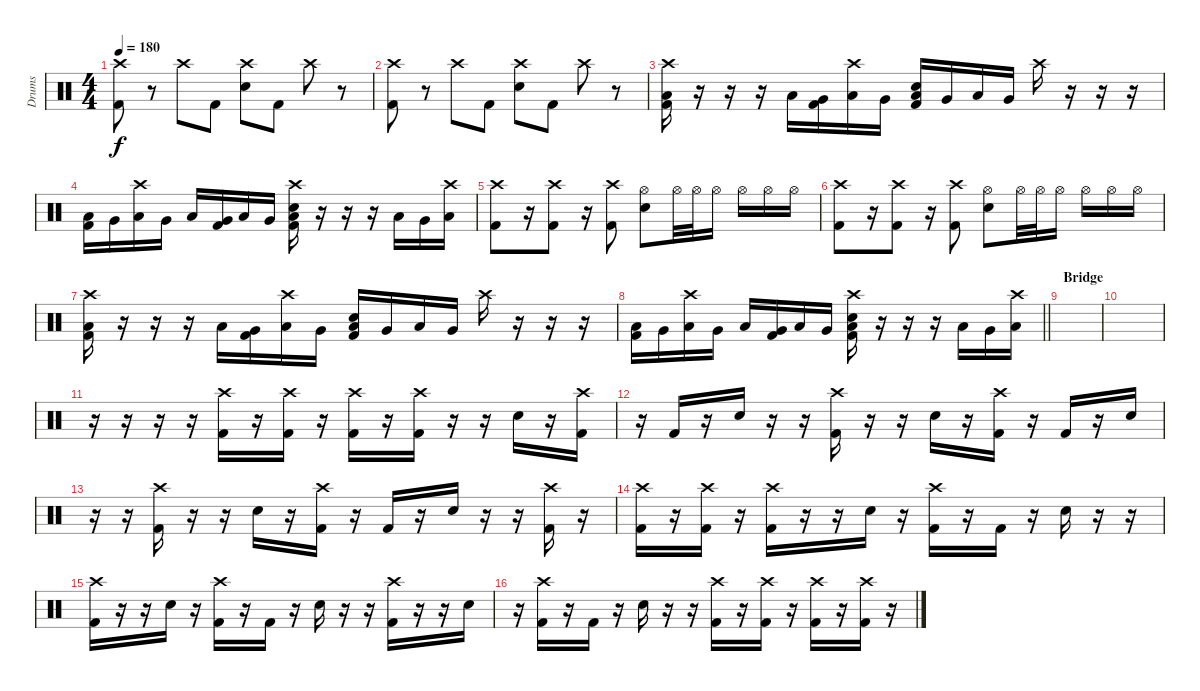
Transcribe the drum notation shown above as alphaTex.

\track ("Drums" "Drums") {instrument percussion}
\staff {score}
\articulation defaults
\ts (4 4)
\tempo 180
\clef neutral
\ks c
("Crash high (hit)" "Kick (hit) 2").8{dy f} r.8 "Crash high (hit)".8 "Kick (hit) 2".8 ("Crash high (hit)" "Electric Snare (hit)").8 "Kick (hit) 2".8 "Crash high (hit)".8 r.8 |
("Crash high (hit)" "Kick (hit) 2").8 r.8 "Crash high (hit)".8 "Kick (hit) 2".8 ("Crash high (hit)" "Electric Snare (hit)").8 "Kick (hit) 2".8 "Crash high (hit)".8 r.8 |
("Crash high (hit)" "Low Floor Tom (hit)" "Kick (hit) 2").16 r.16 r.16 r.16 "Low Floor Tom (hit)".16 ("Very Low Tom (hit)" "Kick (hit) 2").16 ("Crash high (hit)" "Low Floor Tom (hit)").16 "Very Low Tom (hit)".16 ("Electric Snare (hit)" "Low Floor Tom (hit)" "Kick (hit) 2").16 "Very Low Tom (hit)".16 "Low Floor Tom (hit)".16 "Very Low Tom (hit)".16 "Crash high (hit)".16 r.16 r.16 r.16 |
("Low Floor Tom (hit)" "Kick (hit) 2").16 "Very Low Tom (hit)".16 ("Crash high (hit)" "Low Floor Tom (hit)").16 "Very Low Tom (hit)".16 "Low Floor Tom (hit)".16 ("Very Low Tom (hit)" "Kick (hit) 2").16 "Low Floor Tom (hit)".16 "Very Low Tom (hit)".16 ("Crash high (hit)" "Electric Snare (hit)" "Low Floor Tom (hit)" "Kick (hit) 2").16 r.16 r.16 r.16 "Low Floor Tom (hit)".16 "Very Low Tom (hit)".16 ("Crash high (hit)" "Low Floor Tom (hit)").16 |
("Crash high (hit)" "Kick (hit) 2").8 r.16 ("Crash high (hit)" "Kick (hit) 2").8 r.16 ("Crash high (hit)" "Kick (hit) 2").8 ("Hi-Hat (open)" "Electric Snare (hit)").8 "Hi-Hat (open)".32 "Hi-Hat (open)".32 "Hi-Hat (open)".16 "Hi-Hat (open)".16 "Hi-Hat (open)".16 "Hi-Hat (open)".16 |
("Crash high (hit)" "Kick (hit) 2").8 r.16 ("Crash high (hit)" "Kick (hit) 2").8 r.16 ("Crash high (hit)" "Kick (hit) 2").8 ("Hi-Hat (open)" "Electric Snare (hit)").8 "Hi-Hat (open)".32 "Hi-Hat (open)".32 "Hi-Hat (open)".16 "Hi-Hat (open)".16 "Hi-Hat (open)".16 "Hi-Hat (open)".16 |
("Crash high (hit)" "Low Floor Tom (hit)" "Kick (hit) 2").16 r.16 r.16 r.16 "Low Floor Tom (hit)".16 ("Very Low Tom (hit)" "Kick (hit) 2").16 ("Crash high (hit)" "Low Floor Tom (hit)").16 "Very Low Tom (hit)".16 ("Electric Snare (hit)" "Low Floor Tom (hit)" "Kick (hit) 2").16 "Very Low Tom (hit)".16 "Low Floor Tom (hit)".16 "Very Low Tom (hit)".16 "Crash high (hit)".16 r.16 r.16 r.16 |
\barLineRight lightlight
("Low Floor Tom (hit)" "Kick (hit) 2").16 "Very Low Tom (hit)".16 ("Crash high (hit)" "Low Floor Tom (hit)").16 "Very Low Tom (hit)".16 "Low Floor Tom (hit)".16 ("Very Low Tom (hit)" "Kick (hit) 2").16 "Low Floor Tom (hit)".16 "Very Low Tom (hit)".16 ("Crash high (hit)" "Electric Snare (hit)" "Low Floor Tom (hit)" "Kick (hit) 2").16 r.16 r.16 r.16 "Low Floor Tom (hit)".16 "Very Low Tom (hit)".16 ("Crash high (hit)" "Low Floor Tom (hit)").16 |
\section ("" "Bridge")
|
|
r.16 r.16 r.16 r.16 ("Crash high (hit)" "Kick (hit) 2").16 r.16 ("Crash high (hit)" "Kick (hit) 2").16 r.16 ("Crash high (hit)" "Kick (hit) 2").16 r.16 ("Crash high (hit)" "Kick (hit) 2").16 r.16 r.16 "Electric Snare (hit)".16 r.16 ("Crash high (hit)" "Kick (hit) 2").16 |
r.16 "Kick (hit) 2".16 r.16 "Electric Snare (hit)".16 r.16 r.16 ("Crash high (hit)" "Kick (hit) 2").16 r.16 r.16 "Electric Snare (hit)".16 r.16 ("Crash high (hit)" "Kick (hit) 2").16 r.16 "Kick (hit) 2".16 r.16 "Electric Snare (hit)".16 |
r.16 r.16 ("Crash high (hit)" "Kick (hit) 2").16 r.16 r.16 "Electric Snare (hit)".16 r.16 ("Crash high (hit)" "Kick (hit) 2").16 r.16 "Kick (hit) 2".16 r.16 "Electric Snare (hit)".16 r.16 r.16 ("Crash high (hit)" "Kick (hit) 2").16 r.16 |
("Crash high (hit)" "Kick (hit) 2").16 r.16 ("Crash high (hit)" "Kick (hit) 2").16 r.16 ("Crash high (hit)" "Kick (hit) 2").16 r.16 r.16 "Electric Snare (hit)".16 r.16 ("Crash high (hit)" "Kick (hit) 2").16 r.16 "Kick (hit) 2".16 r.16 "Electric Snare (hit)".16 r.16 r.16 |
("Crash high (hit)" "Kick (hit) 2").16 r.16 r.16 "Electric Snare (hit)".16 r.16 ("Crash high (hit)" "Kick (hit) 2").16 r.16 "Kick (hit) 2".16 r.16 "Electric Snare (hit)".16 r.16 r.16 ("Crash high (hit)" "Kick (hit) 2").16 r.16 r.16 "Electric Snare (hit)".16 |
r.16 ("Crash high (hit)" "Kick (hit) 2").16 r.16 "Kick (hit) 2".16 r.16 "Electric Snare (hit)".16 r.16 r.16 ("Kick (hit) 2" "Crash high (hit)").16 r.16 ("Kick (hit) 2" "Crash high (hit)").16 r.16 ("Kick (hit) 2" "Crash high (hit)").16 r.16 ("Kick (hit) 2" "Crash high (hit)").16 r.16
